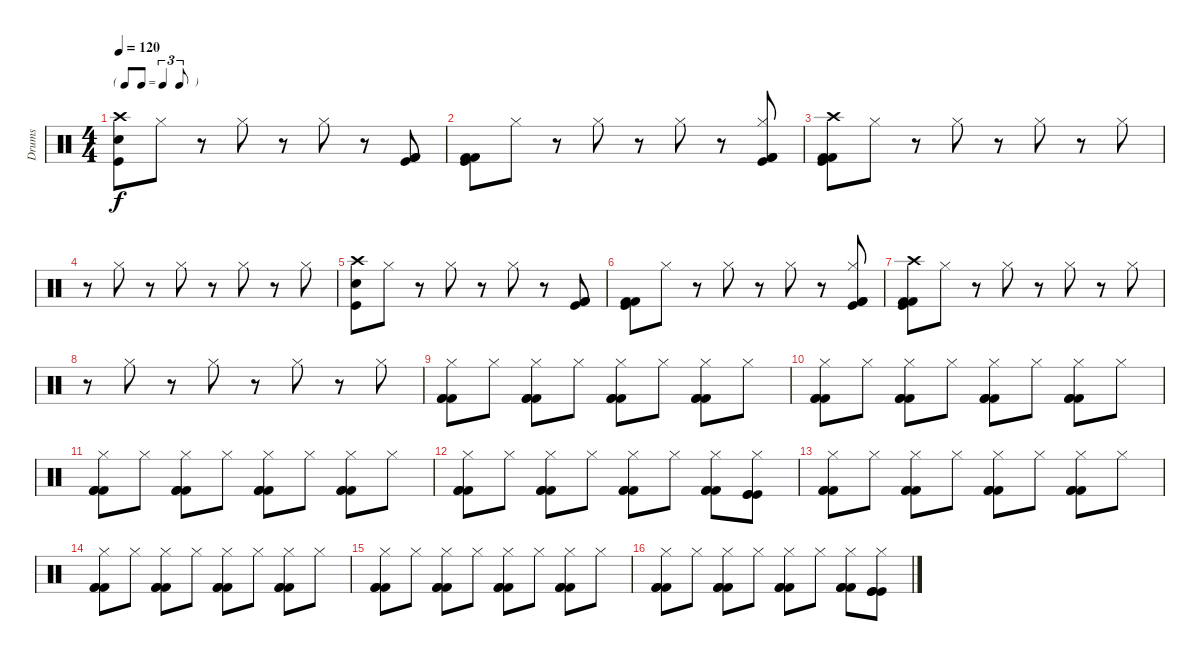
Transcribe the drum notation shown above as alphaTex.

\track ("Drums" "Drums") {instrument percussion}
\staff {score}
\articulation defaults
\ts (4 4)
\tf triplet8th
\tempo 120
\clef neutral
\ks c
("Crash high (hit)" "Electric Snare (hit)" "Kick (hit)").8{dy f} "Hi-Hat (closed)".8 r.8 "Hi-Hat (closed)".8 r.8 "Hi-Hat (closed)".8 r.8 ("Kick (hit)" "Kick (hit) 2" "Kick (hit) 2").8 |
("Kick (hit)" "Kick (hit) 2" "Kick (hit) 2").8 "Hi-Hat (closed)".8 r.8 "Hi-Hat (closed)".8 r.8 "Hi-Hat (closed)".8 r.8 ("Hi-Hat (closed)" "Kick (hit)" "Kick (hit) 2" "Kick (hit) 2").8 |
("Crash high (hit)" "Kick (hit) 2" "Kick (hit) 2" "Kick (hit)").8 "Hi-Hat (closed)".8 r.8 "Hi-Hat (closed)".8 r.8 "Hi-Hat (closed)".8 r.8 "Hi-Hat (closed)".8 |
r.8 "Hi-Hat (closed)".8 r.8 "Hi-Hat (closed)".8 r.8 "Hi-Hat (closed)".8 r.8 "Hi-Hat (closed)".8 |
("Crash high (hit)" "Electric Snare (hit)" "Kick (hit)").8 "Hi-Hat (closed)".8 r.8 "Hi-Hat (closed)".8 r.8 "Hi-Hat (closed)".8 r.8 ("Kick (hit)" "Kick (hit) 2" "Kick (hit) 2").8 |
("Kick (hit)" "Kick (hit) 2" "Kick (hit) 2").8 "Hi-Hat (closed)".8 r.8 "Hi-Hat (closed)".8 r.8 "Hi-Hat (closed)".8 r.8 ("Hi-Hat (closed)" "Kick (hit)" "Kick (hit) 2" "Kick (hit) 2").8 |
("Crash high (hit)" "Kick (hit) 2" "Kick (hit) 2" "Kick (hit)").8 "Hi-Hat (closed)".8 r.8 "Hi-Hat (closed)".8 r.8 "Hi-Hat (closed)".8 r.8 "Hi-Hat (closed)".8 |
r.8 "Hi-Hat (closed)".8 r.8 "Hi-Hat (closed)".8 r.8 "Hi-Hat (closed)".8 r.8 "Hi-Hat (closed)".8 |
("Hi-Hat (closed)" "Kick (hit) 2" "Kick (hit) 2" "Kick (hit) 2").8 "Hi-Hat (closed)".8 ("Hi-Hat (closed)" "Kick (hit) 2" "Kick (hit) 2" "Kick (hit) 2").8 "Hi-Hat (closed)".8 ("Hi-Hat (closed)" "Kick (hit) 2" "Kick (hit) 2" "Kick (hit) 2").8 "Hi-Hat (closed)".8 ("Hi-Hat (closed)" "Kick (hit) 2" "Kick (hit) 2" "Kick (hit) 2").8 "Hi-Hat (closed)".8 |
("Hi-Hat (closed)" "Kick (hit) 2" "Kick (hit) 2" "Kick (hit) 2").8 "Hi-Hat (closed)".8 ("Hi-Hat (closed)" "Kick (hit) 2" "Kick (hit) 2" "Kick (hit) 2").8 "Hi-Hat (closed)".8 ("Hi-Hat (closed)" "Kick (hit) 2" "Kick (hit) 2" "Kick (hit) 2").8 "Hi-Hat (closed)".8 ("Hi-Hat (closed)" "Kick (hit) 2" "Kick (hit) 2" "Kick (hit) 2").8 "Hi-Hat (closed)".8 |
("Hi-Hat (closed)" "Kick (hit) 2" "Kick (hit) 2" "Kick (hit) 2").8 "Hi-Hat (closed)".8 ("Hi-Hat (closed)" "Kick (hit) 2" "Kick (hit) 2" "Kick (hit) 2").8 "Hi-Hat (closed)".8 ("Hi-Hat (closed)" "Kick (hit) 2" "Kick (hit) 2" "Kick (hit) 2").8 "Hi-Hat (closed)".8 ("Hi-Hat (closed)" "Kick (hit) 2" "Kick (hit) 2" "Kick (hit) 2").8 "Hi-Hat (closed)".8 |
("Hi-Hat (closed)" "Kick (hit) 2" "Kick (hit) 2" "Kick (hit) 2").8 "Hi-Hat (closed)".8 ("Hi-Hat (closed)" "Kick (hit) 2" "Kick (hit) 2" "Kick (hit) 2").8 "Hi-Hat (closed)".8 ("Hi-Hat (closed)" "Kick (hit) 2" "Kick (hit) 2" "Kick (hit) 2").8 "Hi-Hat (closed)".8 ("Hi-Hat (closed)" "Kick (hit) 2" "Kick (hit) 2" "Kick (hit) 2").8 ("Hi-Hat (closed)" "Kick (hit)" "Kick (hit)" "Kick (hit)").8 |
("Hi-Hat (closed)" "Kick (hit) 2" "Kick (hit) 2" "Kick (hit) 2").8 "Hi-Hat (closed)".8 ("Hi-Hat (closed)" "Kick (hit) 2" "Kick (hit) 2" "Kick (hit) 2").8 "Hi-Hat (closed)".8 ("Hi-Hat (closed)" "Kick (hit) 2" "Kick (hit) 2" "Kick (hit) 2").8 "Hi-Hat (closed)".8 ("Hi-Hat (closed)" "Kick (hit) 2" "Kick (hit) 2" "Kick (hit) 2").8 "Hi-Hat (closed)".8 |
("Hi-Hat (closed)" "Kick (hit) 2" "Kick (hit) 2" "Kick (hit) 2").8 "Hi-Hat (closed)".8 ("Hi-Hat (closed)" "Kick (hit) 2" "Kick (hit) 2" "Kick (hit) 2").8 "Hi-Hat (closed)".8 ("Hi-Hat (closed)" "Kick (hit) 2" "Kick (hit) 2" "Kick (hit) 2").8 "Hi-Hat (closed)".8 ("Hi-Hat (closed)" "Kick (hit) 2" "Kick (hit) 2" "Kick (hit) 2").8 "Hi-Hat (closed)".8 |
("Hi-Hat (closed)" "Kick (hit) 2" "Kick (hit) 2" "Kick (hit) 2").8 "Hi-Hat (closed)".8 ("Hi-Hat (closed)" "Kick (hit) 2" "Kick (hit) 2" "Kick (hit) 2").8 "Hi-Hat (closed)".8 ("Hi-Hat (closed)" "Kick (hit) 2" "Kick (hit) 2" "Kick (hit) 2").8 "Hi-Hat (closed)".8 ("Hi-Hat (closed)" "Kick (hit) 2" "Kick (hit) 2" "Kick (hit) 2").8 "Hi-Hat (closed)".8 |
("Hi-Hat (closed)" "Kick (hit) 2" "Kick (hit) 2" "Kick (hit) 2").8 "Hi-Hat (closed)".8 ("Hi-Hat (closed)" "Kick (hit) 2" "Kick (hit) 2" "Kick (hit) 2").8 "Hi-Hat (closed)".8 ("Hi-Hat (closed)" "Kick (hit) 2" "Kick (hit) 2" "Kick (hit) 2").8 "Hi-Hat (closed)".8 ("Hi-Hat (closed)" "Kick (hit) 2" "Kick (hit) 2" "Kick (hit) 2").8 ("Hi-Hat (closed)" "Kick (hit)" "Kick (hit)" "Kick (hit)").8
